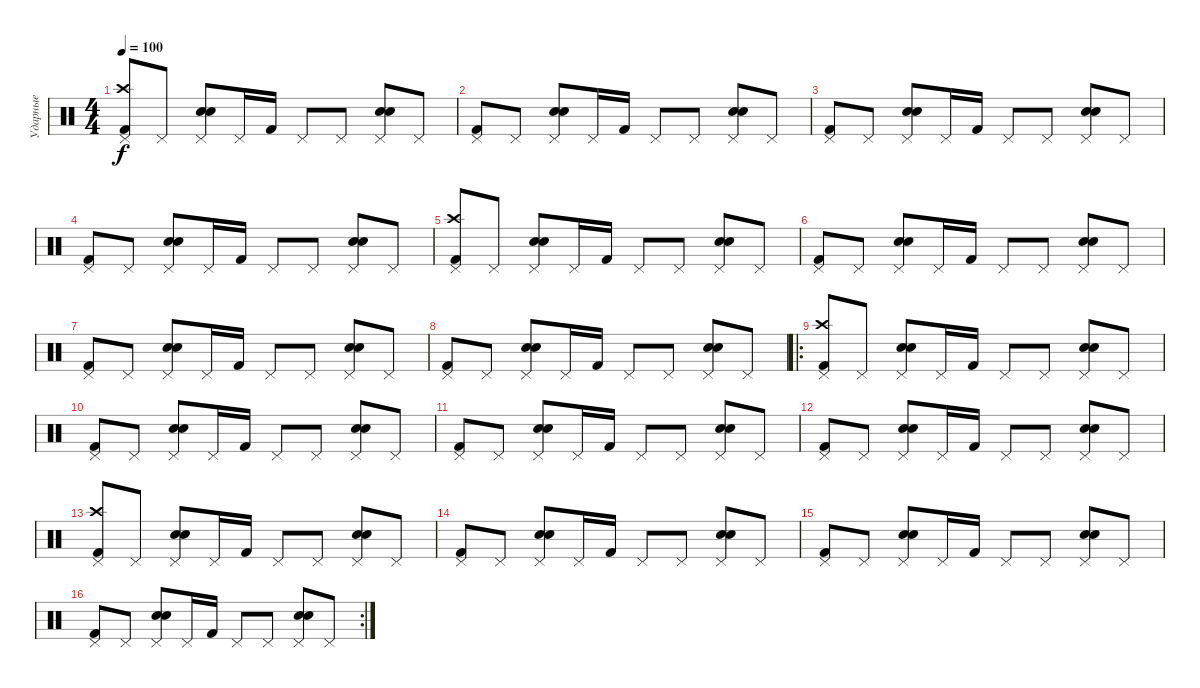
\track ("Ударные" "Ударные") {instrument percussion}
\staff {score}
\articulation defaults
\ts (4 4)
\tempo 100
\clef neutral
\ks c
("Kick (hit) 2" "Crash high (hit)" "Pedal Hi-Hat (hit)").8{dy f} "Pedal Hi-Hat (hit)".8 ("Hand Clap (hit)" "Electric Snare (hit)" "Pedal Hi-Hat (hit)").8 "Pedal Hi-Hat (hit)".16 "Kick (hit) 2".16 "Pedal Hi-Hat (hit)".8 "Pedal Hi-Hat (hit)".8 ("Hand Clap (hit)" "Electric Snare (hit)" "Pedal Hi-Hat (hit)").8 "Pedal Hi-Hat (hit)".8 |
("Kick (hit) 2" "Pedal Hi-Hat (hit)").8 "Pedal Hi-Hat (hit)".8 ("Hand Clap (hit)" "Electric Snare (hit)" "Pedal Hi-Hat (hit)").8 "Pedal Hi-Hat (hit)".16 "Kick (hit) 2".16 "Pedal Hi-Hat (hit)".8 "Pedal Hi-Hat (hit)".8 ("Hand Clap (hit)" "Electric Snare (hit)" "Pedal Hi-Hat (hit)").8 "Pedal Hi-Hat (hit)".8 |
("Kick (hit) 2" "Pedal Hi-Hat (hit)").8 "Pedal Hi-Hat (hit)".8 ("Hand Clap (hit)" "Electric Snare (hit)" "Pedal Hi-Hat (hit)").8 "Pedal Hi-Hat (hit)".16 "Kick (hit) 2".16 "Pedal Hi-Hat (hit)".8 "Pedal Hi-Hat (hit)".8 ("Hand Clap (hit)" "Electric Snare (hit)" "Pedal Hi-Hat (hit)").8 "Pedal Hi-Hat (hit)".8 |
("Kick (hit) 2" "Pedal Hi-Hat (hit)").8 "Pedal Hi-Hat (hit)".8 ("Hand Clap (hit)" "Electric Snare (hit)" "Pedal Hi-Hat (hit)").8 "Pedal Hi-Hat (hit)".16 "Kick (hit) 2".16 "Pedal Hi-Hat (hit)".8 "Pedal Hi-Hat (hit)".8 ("Hand Clap (hit)" "Electric Snare (hit)" "Pedal Hi-Hat (hit)").8 "Pedal Hi-Hat (hit)".8 |
("Kick (hit) 2" "Crash high (hit)" "Pedal Hi-Hat (hit)").8 "Pedal Hi-Hat (hit)".8 ("Hand Clap (hit)" "Electric Snare (hit)" "Pedal Hi-Hat (hit)").8 "Pedal Hi-Hat (hit)".16 "Kick (hit) 2".16 "Pedal Hi-Hat (hit)".8 "Pedal Hi-Hat (hit)".8 ("Hand Clap (hit)" "Electric Snare (hit)" "Pedal Hi-Hat (hit)").8 "Pedal Hi-Hat (hit)".8 |
("Kick (hit) 2" "Pedal Hi-Hat (hit)").8 "Pedal Hi-Hat (hit)".8 ("Hand Clap (hit)" "Electric Snare (hit)" "Pedal Hi-Hat (hit)").8 "Pedal Hi-Hat (hit)".16 "Kick (hit) 2".16 "Pedal Hi-Hat (hit)".8 "Pedal Hi-Hat (hit)".8 ("Hand Clap (hit)" "Electric Snare (hit)" "Pedal Hi-Hat (hit)").8 "Pedal Hi-Hat (hit)".8 |
("Kick (hit) 2" "Pedal Hi-Hat (hit)").8 "Pedal Hi-Hat (hit)".8 ("Hand Clap (hit)" "Electric Snare (hit)" "Pedal Hi-Hat (hit)").8 "Pedal Hi-Hat (hit)".16 "Kick (hit) 2".16 "Pedal Hi-Hat (hit)".8 "Pedal Hi-Hat (hit)".8 ("Hand Clap (hit)" "Electric Snare (hit)" "Pedal Hi-Hat (hit)").8 "Pedal Hi-Hat (hit)".8 |
("Kick (hit) 2" "Pedal Hi-Hat (hit)").8 "Pedal Hi-Hat (hit)".8 ("Hand Clap (hit)" "Electric Snare (hit)" "Pedal Hi-Hat (hit)").8 "Pedal Hi-Hat (hit)".16 "Kick (hit) 2".16 "Pedal Hi-Hat (hit)".8 "Pedal Hi-Hat (hit)".8 ("Hand Clap (hit)" "Electric Snare (hit)" "Pedal Hi-Hat (hit)").8 "Pedal Hi-Hat (hit)".8 |
\ro
("Kick (hit) 2" "Crash high (hit)" "Pedal Hi-Hat (hit)").8 "Pedal Hi-Hat (hit)".8 ("Hand Clap (hit)" "Electric Snare (hit)" "Pedal Hi-Hat (hit)").8 "Pedal Hi-Hat (hit)".16 "Kick (hit) 2".16 "Pedal Hi-Hat (hit)".8 "Pedal Hi-Hat (hit)".8 ("Hand Clap (hit)" "Electric Snare (hit)" "Pedal Hi-Hat (hit)").8 "Pedal Hi-Hat (hit)".8 |
("Kick (hit) 2" "Pedal Hi-Hat (hit)").8 "Pedal Hi-Hat (hit)".8 ("Hand Clap (hit)" "Electric Snare (hit)" "Pedal Hi-Hat (hit)").8 "Pedal Hi-Hat (hit)".16 "Kick (hit) 2".16 "Pedal Hi-Hat (hit)".8 "Pedal Hi-Hat (hit)".8 ("Hand Clap (hit)" "Electric Snare (hit)" "Pedal Hi-Hat (hit)").8 "Pedal Hi-Hat (hit)".8 |
("Kick (hit) 2" "Pedal Hi-Hat (hit)").8 "Pedal Hi-Hat (hit)".8 ("Hand Clap (hit)" "Electric Snare (hit)" "Pedal Hi-Hat (hit)").8 "Pedal Hi-Hat (hit)".16 "Kick (hit) 2".16 "Pedal Hi-Hat (hit)".8 "Pedal Hi-Hat (hit)".8 ("Hand Clap (hit)" "Electric Snare (hit)" "Pedal Hi-Hat (hit)").8 "Pedal Hi-Hat (hit)".8 |
("Kick (hit) 2" "Pedal Hi-Hat (hit)").8 "Pedal Hi-Hat (hit)".8 ("Hand Clap (hit)" "Electric Snare (hit)" "Pedal Hi-Hat (hit)").8 "Pedal Hi-Hat (hit)".16 "Kick (hit) 2".16 "Pedal Hi-Hat (hit)".8 "Pedal Hi-Hat (hit)".8 ("Hand Clap (hit)" "Electric Snare (hit)" "Pedal Hi-Hat (hit)").8 "Pedal Hi-Hat (hit)".8 |
("Kick (hit) 2" "Crash high (hit)" "Pedal Hi-Hat (hit)").8 "Pedal Hi-Hat (hit)".8 ("Hand Clap (hit)" "Electric Snare (hit)" "Pedal Hi-Hat (hit)").8 "Pedal Hi-Hat (hit)".16 "Kick (hit) 2".16 "Pedal Hi-Hat (hit)".8 "Pedal Hi-Hat (hit)".8 ("Hand Clap (hit)" "Electric Snare (hit)" "Pedal Hi-Hat (hit)").8 "Pedal Hi-Hat (hit)".8 |
("Kick (hit) 2" "Pedal Hi-Hat (hit)").8 "Pedal Hi-Hat (hit)".8 ("Hand Clap (hit)" "Electric Snare (hit)" "Pedal Hi-Hat (hit)").8 "Pedal Hi-Hat (hit)".16 "Kick (hit) 2".16 "Pedal Hi-Hat (hit)".8 "Pedal Hi-Hat (hit)".8 ("Hand Clap (hit)" "Electric Snare (hit)" "Pedal Hi-Hat (hit)").8 "Pedal Hi-Hat (hit)".8 |
("Kick (hit) 2" "Pedal Hi-Hat (hit)").8 "Pedal Hi-Hat (hit)".8 ("Hand Clap (hit)" "Electric Snare (hit)" "Pedal Hi-Hat (hit)").8 "Pedal Hi-Hat (hit)".16 "Kick (hit) 2".16 "Pedal Hi-Hat (hit)".8 "Pedal Hi-Hat (hit)".8 ("Hand Clap (hit)" "Electric Snare (hit)" "Pedal Hi-Hat (hit)").8 "Pedal Hi-Hat (hit)".8 |
\rc 2
("Kick (hit) 2" "Pedal Hi-Hat (hit)").8 "Pedal Hi-Hat (hit)".8 ("Hand Clap (hit)" "Electric Snare (hit)" "Pedal Hi-Hat (hit)").8 "Pedal Hi-Hat (hit)".16 "Kick (hit) 2".16 "Pedal Hi-Hat (hit)".8 "Pedal Hi-Hat (hit)".8 ("Hand Clap (hit)" "Electric Snare (hit)" "Pedal Hi-Hat (hit)").8 "Pedal Hi-Hat (hit)".8
